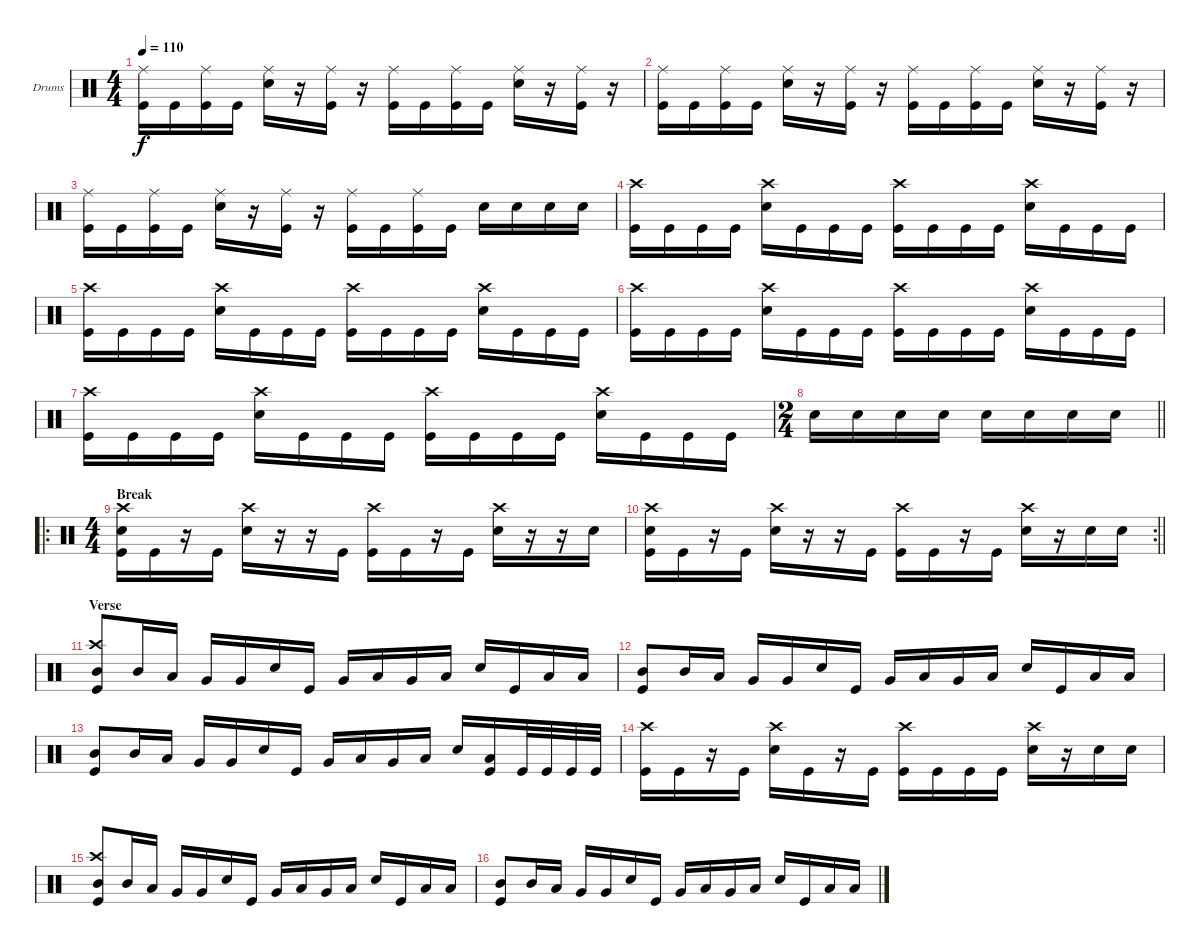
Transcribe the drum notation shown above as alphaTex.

\bracketExtendMode groupsimilarinstruments
\firstSystemTrackNameOrientation horizontal
\otherSystemsTrackNameOrientation horizontal
\track ("Drumkit" "Drums") {instrument percussion}
\staff {score}
\articulation defaults
\ts (4 4)
\tempo 110
\clef neutral
\ks c
("Ride (middle)" "Kick (hit)").16{dy f} "Kick (hit)".16 ("Ride (middle)" "Kick (hit)").16 "Kick (hit)".16 ("Ride (middle)" "Snare (hit) 2").16 r.16 ("Ride (middle)" "Kick (hit)").16 r.16 ("Ride (middle)" "Kick (hit)").16 "Kick (hit)".16 ("Ride (middle)" "Kick (hit)").16 "Kick (hit)".16 ("Ride (middle)" "Snare (hit) 2").16 r.16 ("Ride (middle)" "Kick (hit)").16 r.16 |
("Ride (middle)" "Kick (hit)").16 "Kick (hit)".16 ("Ride (middle)" "Kick (hit)").16 "Kick (hit)".16 ("Ride (middle)" "Snare (hit) 2").16 r.16 ("Ride (middle)" "Kick (hit)").16 r.16 ("Ride (middle)" "Kick (hit)").16 "Kick (hit)".16 ("Ride (middle)" "Kick (hit)").16 "Kick (hit)".16 ("Ride (middle)" "Snare (hit) 2").16 r.16 ("Ride (middle)" "Kick (hit)").16 r.16 |
("Ride (middle)" "Kick (hit)").16 "Kick (hit)".16 ("Ride (middle)" "Kick (hit)").16 "Kick (hit)".16 ("Ride (middle)" "Snare (hit) 2").16 r.16 ("Ride (middle)" "Kick (hit)").16 r.16 ("Ride (middle)" "Kick (hit)").16 "Kick (hit)".16 ("Ride (middle)" "Kick (hit)").16 "Kick (hit)".16 "Snare (hit) 2".16 "Snare (hit) 2".16 "Snare (hit) 2".16 "Snare (hit) 2".16 |
("Crash high (hit)" "Kick (hit)").16 "Kick (hit)".16 "Kick (hit)".16 "Kick (hit)".16 ("Crash high (hit)" "Snare (hit) 2").16 "Kick (hit)".16 "Kick (hit)".16 "Kick (hit)".16 ("Crash high (hit)" "Kick (hit)").16 "Kick (hit)".16 "Kick (hit)".16 "Kick (hit)".16 ("Crash high (hit)" "Snare (hit) 2").16 "Kick (hit)".16 "Kick (hit)".16 "Kick (hit)".16 |
("Crash high (hit)" "Kick (hit)").16 "Kick (hit)".16 "Kick (hit)".16 "Kick (hit)".16 ("Crash high (hit)" "Snare (hit) 2").16 "Kick (hit)".16 "Kick (hit)".16 "Kick (hit)".16 ("Crash high (hit)" "Kick (hit)").16 "Kick (hit)".16 "Kick (hit)".16 "Kick (hit)".16 ("Crash high (hit)" "Snare (hit) 2").16 "Kick (hit)".16 "Kick (hit)".16 "Kick (hit)".16 |
("Crash high (hit)" "Kick (hit)").16 "Kick (hit)".16 "Kick (hit)".16 "Kick (hit)".16 ("Crash high (hit)" "Snare (hit) 2").16 "Kick (hit)".16 "Kick (hit)".16 "Kick (hit)".16 ("Crash high (hit)" "Kick (hit)").16 "Kick (hit)".16 "Kick (hit)".16 "Kick (hit)".16 ("Crash high (hit)" "Snare (hit) 2").16 "Kick (hit)".16 "Kick (hit)".16 "Kick (hit)".16 |
("Crash high (hit)" "Kick (hit)").16 "Kick (hit)".16 "Kick (hit)".16 "Kick (hit)".16 ("Crash high (hit)" "Snare (hit) 2").16 "Kick (hit)".16 "Kick (hit)".16 "Kick (hit)".16 ("Crash high (hit)" "Kick (hit)").16 "Kick (hit)".16 "Kick (hit)".16 "Kick (hit)".16 ("Crash high (hit)" "Snare (hit) 2").16 "Kick (hit)".16 "Kick (hit)".16 "Kick (hit)".16 |
\ts (2 4)
\beaming (8 2 2)
\barLineRight lightlight "Snare (hit) 2".16 "Snare (hit) 2".16 "Snare (hit) 2".16 "Snare (hit) 2".16 "Snare (hit) 2".16 "Snare (hit) 2".16 "Snare (hit) 2".16 "Snare (hit) 2".16
|
\ro
\ts (4 4)
\beaming (8 2 2 2 2)
\section ("" "Break")
("Crash high (hit)" "Snare (hit) 2" "Kick (hit)").16 "Kick (hit)".16 r.16 "Kick (hit)".16 ("Crash high (hit)" "Snare (hit) 2").16 r.16 r.16 "Kick (hit)".16 ("Crash high (hit)" "Kick (hit)").16 "Kick (hit)".16 r.16 "Kick (hit)".16 ("Crash high (hit)" "Snare (hit) 2").16 r.16 r.16 "Snare (hit) 2".16 |
\rc 2
\barLineRight lightlight
("Crash high (hit)" "Snare (hit) 2" "Kick (hit)").16 "Kick (hit)".16 r.16 "Kick (hit)".16 ("Crash high (hit)" "Snare (hit) 2").16 r.16 r.16 "Kick (hit)".16 ("Crash high (hit)" "Kick (hit)").16 "Kick (hit)".16 r.16 "Kick (hit)".16 ("Crash high (hit)" "Snare (hit) 2").16 r.16 "Snare (hit) 2".16 "Snare (hit) 2".16 |
\section ("" "Verse")
("Crash high (hit)" "Mid Tom (hit)" "Kick (hit)").8 "Mid Tom (hit)".16 "Low Tom (hit)".16 "Very Low Tom (hit)".16 "Very Low Tom (hit)".16 "Snare (hit) 2".16 "Kick (hit)".16 "Very Low Tom (hit)".16 "Low Tom (hit)".16 "Very Low Tom (hit)".16 "Low Tom (hit)".16 "Snare (hit) 2".16 "Kick (hit)".16 "Low Tom (hit)".16 "Low Tom (hit)".16 |
("Mid Tom (hit)" "Kick (hit)").8 "Mid Tom (hit)".16 "Low Tom (hit)".16 "Very Low Tom (hit)".16 "Very Low Tom (hit)".16 "Snare (hit) 2".16 "Kick (hit)".16 "Very Low Tom (hit)".16 "Low Tom (hit)".16 "Very Low Tom (hit)".16 "Low Tom (hit)".16 "Snare (hit) 2".16 "Kick (hit)".16 "Low Tom (hit)".16 "Low Tom (hit)".16 |
("Mid Tom (hit)" "Kick (hit)").8 "Mid Tom (hit)".16 "Low Tom (hit)".16 "Very Low Tom (hit)".16 "Very Low Tom (hit)".16 "Snare (hit) 2".16 "Kick (hit)".16 "Very Low Tom (hit)".16 "Low Tom (hit)".16 "Very Low Tom (hit)".16 "Low Tom (hit)".16 "Snare (hit) 2".16 ("Low Tom (hit)" "Kick (hit)").16 "Kick (hit)".32 "Kick (hit)".32 "Kick (hit)".32 "Kick (hit)".32 |
("Crash high (hit)" "Kick (hit)").16 "Kick (hit)".16 r.16 "Kick (hit)".16 ("Crash high (hit)" "Snare (hit) 2").16 "Kick (hit)".16 r.16 "Kick (hit)".16 ("Crash high (hit)" "Kick (hit)").16 "Kick (hit)".16 "Kick (hit)".16 "Kick (hit)".16 ("Crash high (hit)" "Snare (hit) 2").16 r.16 "Snare (hit) 2".16 "Snare (hit) 2".16 |
("Crash high (hit)" "Mid Tom (hit)" "Kick (hit)").8 "Mid Tom (hit)".16 "Low Tom (hit)".16 "Very Low Tom (hit)".16 "Very Low Tom (hit)".16 "Snare (hit) 2".16 "Kick (hit)".16 "Very Low Tom (hit)".16 "Low Tom (hit)".16 "Very Low Tom (hit)".16 "Low Tom (hit)".16 "Snare (hit) 2".16 "Kick (hit)".16 "Low Tom (hit)".16 "Low Tom (hit)".16 |
("Mid Tom (hit)" "Kick (hit)").8 "Mid Tom (hit)".16 "Low Tom (hit)".16 "Very Low Tom (hit)".16 "Very Low Tom (hit)".16 "Snare (hit) 2".16 "Kick (hit)".16 "Very Low Tom (hit)".16 "Low Tom (hit)".16 "Very Low Tom (hit)".16 "Low Tom (hit)".16 "Snare (hit) 2".16 "Kick (hit)".16 "Low Tom (hit)".16 "Low Tom (hit)".16
